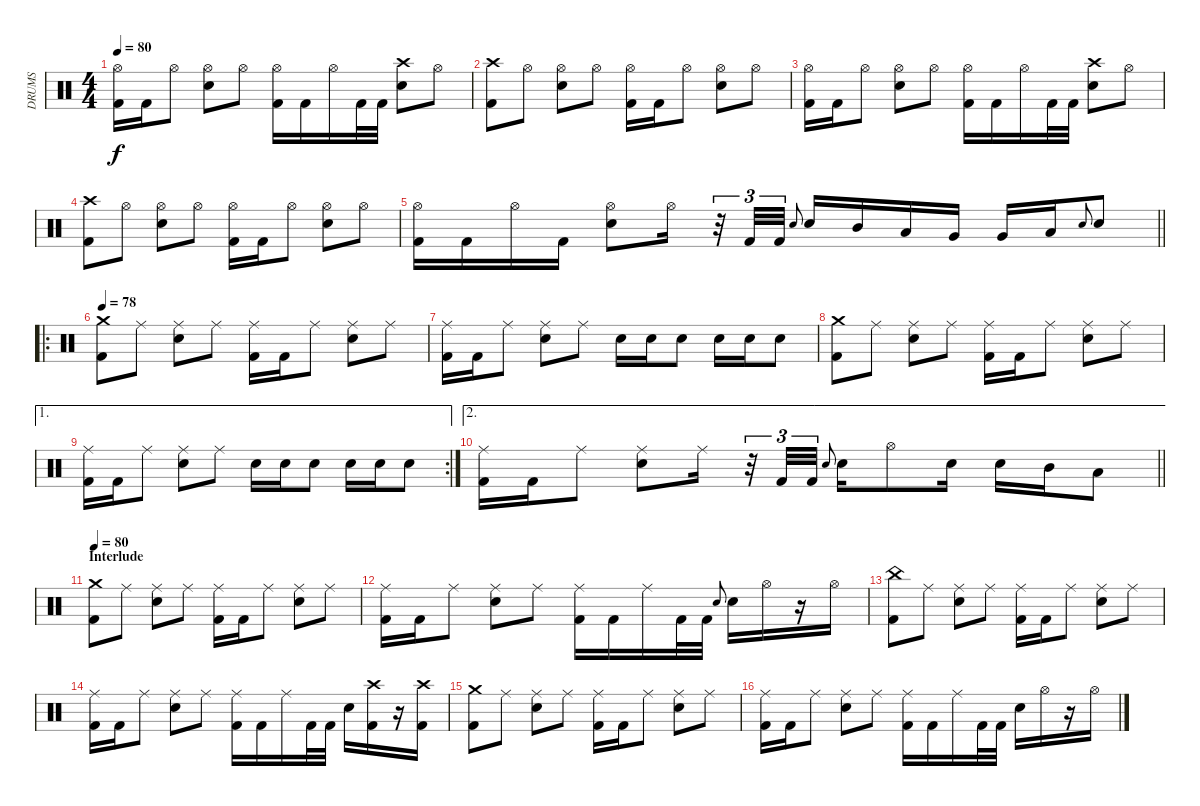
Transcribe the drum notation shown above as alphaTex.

\track ("DRUMS" "DRUMS") {instrument percussion}
\staff {score}
\articulation defaults
\ts (4 4)
\tempo 80
\clef neutral
\ks c
("Hi-Hat (open)" "Kick (hit) 2").16{dy f} "Kick (hit) 2".16 "Hi-Hat (open)".8 ("Hi-Hat (open)" "Snare (hit) 2").8 "Hi-Hat (open)".8 ("Hi-Hat (open)" "Kick (hit) 2").16 "Kick (hit) 2".16 "Hi-Hat (open)".16 "Kick (hit) 2".32 "Kick (hit) 2".32 ("Crash high (hit)" "Snare (hit) 2").8 "Hi-Hat (open)".8 |
("Crash high (hit)" "Kick (hit) 2").8 "Hi-Hat (open)".8 ("Hi-Hat (open)" "Snare (hit) 2").8 "Hi-Hat (open)".8 ("Hi-Hat (open)" "Kick (hit) 2").16 "Kick (hit) 2".16 "Hi-Hat (open)".8 ("Hi-Hat (open)" "Snare (hit) 2").8 "Hi-Hat (open)".8 |
("Hi-Hat (open)" "Kick (hit) 2").16 "Kick (hit) 2".16 "Hi-Hat (open)".8 ("Hi-Hat (open)" "Snare (hit) 2").8 "Hi-Hat (open)".8 ("Hi-Hat (open)" "Kick (hit) 2").16 "Kick (hit) 2".16 "Hi-Hat (open)".16 "Kick (hit) 2".32 "Kick (hit) 2".32 ("Crash high (hit)" "Snare (hit) 2").8 "Hi-Hat (open)".8 |
("Crash high (hit)" "Kick (hit) 2").8 "Hi-Hat (open)".8 ("Hi-Hat (open)" "Snare (hit) 2").8 "Hi-Hat (open)".8 ("Hi-Hat (open)" "Kick (hit) 2").16 "Kick (hit) 2".16 "Hi-Hat (open)".8 ("Hi-Hat (open)" "Snare (hit) 2").8 "Hi-Hat (open)".8 |
\barLineRight lightlight
("Hi-Hat (open)" "Kick (hit) 2").16 "Kick (hit) 2".16 "Hi-Hat (open)".16 "Kick (hit) 2".16 ("Hi-Hat (open)" "Snare (hit) 2").8 "Hi-Hat (open)".16 r.32{tu (3 2)} "Kick (hit) 2".32{tu (3 2)} "Kick (hit) 2".32{tu (3 2)} "Snare (hit) 2".8{gr onbeat} "Snare (hit) 2".16 "Mid Tom (hit)".16 "Low Tom (hit)".16 "Very Low Tom (hit)".16 "Very Low Tom (hit)".16 "Low Floor Tom (hit)".16 "Snare (hit) 2".8{gr onbeat} "Snare (hit) 2".8 |
\ro
\tempo 78
("Crash medium (hit)" "Kick (hit) 2").8 "Ride (middle)".8 ("Ride (middle)" "Snare (hit) 2").8 "Ride (middle)".8 ("Ride (middle)" "Kick (hit) 2").16 "Kick (hit) 2".16 "Ride (middle)".8 ("Ride (middle)" "Snare (hit) 2").8 "Ride (middle)".8 |
("Ride (middle)" "Kick (hit) 2").16 "Kick (hit) 2".16 "Ride (middle)".8 ("Ride (middle)" "Snare (hit) 2").8 "Ride (middle)".8 "Snare (hit) 2".16 "Snare (hit) 2".16 "Snare (hit) 2".8 "Snare (hit) 2".16 "Snare (hit) 2".16 "Snare (hit) 2".8 |
("Crash medium (hit)" "Kick (hit) 2").8 "Ride (middle)".8 ("Ride (middle)" "Snare (hit) 2").8 "Ride (middle)".8 ("Ride (middle)" "Kick (hit) 2").16 "Kick (hit) 2".16 "Ride (middle)".8 ("Ride (middle)" "Snare (hit) 2").8 "Ride (middle)".8 |
\ae 1
\rc 2
("Ride (middle)" "Kick (hit) 2").16 "Kick (hit) 2".16 "Ride (middle)".8 ("Ride (middle)" "Snare (hit) 2").8 "Ride (middle)".8 "Snare (hit) 2".16 "Snare (hit) 2".16 "Snare (hit) 2".8 "Snare (hit) 2".16 "Snare (hit) 2".16 "Snare (hit) 2".8 |
\ae 2
\barLineRight lightlight
("Ride (middle)" "Kick (hit) 2").16 "Kick (hit) 2".16 "Ride (middle)".8 ("Ride (middle)" "Snare (hit) 2").8 "Ride (middle)".16 r.32{tu (3 2)} "Kick (hit) 2".32{tu (3 2)} "Kick (hit) 2".32{tu (3 2)} "Snare (hit) 2".8{gr onbeat} "Snare (hit) 2".16 "Hi-Hat (open)".8 "Snare (hit) 2".16 "Snare (hit) 2".16 "Mid Tom (hit)".16 "Low Tom (hit)".8 |
\section ("" "Interlude")
\tempo 80
("Crash medium (hit)" "Kick (hit) 2").8 "Ride (middle)".8 ("Ride (middle)" "Snare (hit) 2").8 "Ride (middle)".8 ("Ride (middle)" "Kick (hit) 2").16 "Kick (hit) 2".16 "Ride (middle)".8 ("Ride (middle)" "Snare (hit) 2").8 "Ride (middle)".8 |
("Ride (middle)" "Kick (hit) 2").16 "Kick (hit) 2".16 "Ride (middle)".8 ("Ride (middle)" "Snare (hit) 2").8 "Ride (middle)".8 ("Ride (middle)" "Kick (hit) 2").16 "Kick (hit) 2".16 "Ride (middle)".16 "Kick (hit) 2".32 "Kick (hit) 2".32 "Snare (hit) 2".8{gr onbeat} "Snare (hit) 2".16 "Hi-Hat (open)".16 r.16 "Hi-Hat (open)".16 |
("China (hit)" "Kick (hit) 2").8 "Ride (middle)".8 ("Ride (middle)" "Snare (hit) 2").8 "Ride (middle)".8 ("Ride (middle)" "Kick (hit) 2").16 "Kick (hit) 2".16 "Ride (middle)".8 ("Ride (middle)" "Snare (hit) 2").8 "Ride (middle)".8 |
("Ride (middle)" "Kick (hit) 2").16 "Kick (hit) 2".16 "Ride (middle)".8 ("Ride (middle)" "Snare (hit) 2").8 "Ride (middle)".8 ("Ride (middle)" "Kick (hit) 2").16 "Kick (hit) 2".16 "Ride (middle)".16 "Kick (hit) 2".32 "Kick (hit) 2".32 "Snare (hit) 2".16 ("Crash high (hit)" "Kick (hit) 2").16 r.16 ("Crash high (hit)" "Kick (hit) 2").16 |
("Crash medium (hit)" "Kick (hit) 2").8 "Ride (middle)".8 ("Ride (middle)" "Snare (hit) 2").8 "Ride (middle)".8 ("Ride (middle)" "Kick (hit) 2").16 "Kick (hit) 2".16 "Ride (middle)".8 ("Ride (middle)" "Snare (hit) 2").8 "Ride (middle)".8 |
("Ride (middle)" "Kick (hit) 2").16 "Kick (hit) 2".16 "Ride (middle)".8 ("Ride (middle)" "Snare (hit) 2").8 "Ride (middle)".8 ("Ride (middle)" "Kick (hit) 2").16 "Kick (hit) 2".16 "Ride (middle)".16 "Kick (hit) 2".32 "Kick (hit) 2".32 "Snare (hit) 2".16 "Hi-Hat (open)".16 r.16 "Hi-Hat (open)".16
